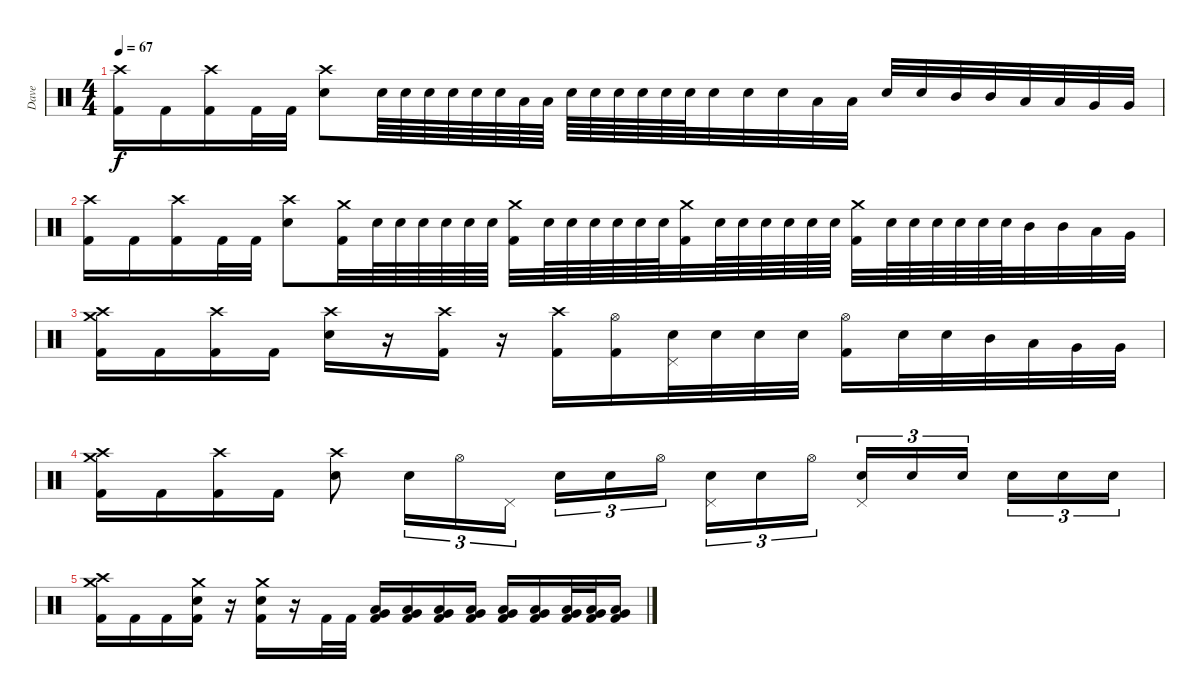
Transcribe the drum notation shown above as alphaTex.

\track ("Dave" "Dave") {instrument percussion}
\staff {score}
\articulation defaults
\ts (4 4)
\tempo 67
\clef neutral
\ks c
("Kick (hit) 2" "Crash high (hit)").16{dy f} "Kick (hit) 2".16 ("Kick (hit) 2" "Crash high (hit)").16 "Kick (hit) 2".32 "Kick (hit) 2".32 ("Electric Snare (hit)" "Crash high (hit)").8 "Electric Snare (hit)".64 "Electric Snare (hit)".64 "Electric Snare (hit)".64 "Electric Snare (hit)".64 "Electric Snare (hit)".64 "Electric Snare (hit)".64 "Low Tom (hit)".64 "Low Tom (hit)".64 "Electric Snare (hit)".64 "Electric Snare (hit)".64 "Electric Snare (hit)".64 "Electric Snare (hit)".64 "Electric Snare (hit)".64 "Electric Snare (hit)".64 "Electric Snare (hit)".32 "Electric Snare (hit)".32 "Electric Snare (hit)".32 "Low Tom (hit)".32 "Low Tom (hit)".32 "Electric Snare (hit)".32 "Electric Snare (hit)".32 "Mid Tom (hit)".32 "Mid Tom (hit)".32 "Low Tom (hit)".32 "Low Tom (hit)".32 "Very Low Tom (hit)".32 "Very Low Tom (hit)".32 |
("Kick (hit) 2" "Crash high (hit)").16 "Kick (hit) 2".16 ("Kick (hit) 2" "Crash high (hit)").16 "Kick (hit) 2".32 "Kick (hit) 2".32 ("Electric Snare (hit)" "Crash high (hit)").8 ("Kick (hit) 2" "Crash medium (hit)").32 "Electric Snare (hit)".64 "Electric Snare (hit)".64 "Electric Snare (hit)".64 "Electric Snare (hit)".64 "Electric Snare (hit)".64 "Electric Snare (hit)".64 ("Kick (hit) 2" "Crash medium (hit)").32 "Electric Snare (hit)".64 "Electric Snare (hit)".64 "Electric Snare (hit)".64 "Electric Snare (hit)".64 "Electric Snare (hit)".64 "Electric Snare (hit)".64 ("Kick (hit) 2" "Crash medium (hit)").32 "Electric Snare (hit)".64 "Electric Snare (hit)".64 "Electric Snare (hit)".64 "Electric Snare (hit)".64 "Electric Snare (hit)".64 "Electric Snare (hit)".64 ("Kick (hit) 2" "Crash medium (hit)").32 "Electric Snare (hit)".64 "Electric Snare (hit)".64 "Electric Snare (hit)".64 "Electric Snare (hit)".64 "Electric Snare (hit)".64 "Electric Snare (hit)".64 "Mid Tom (hit)".32 "Mid Tom (hit)".32 "Low Tom (hit)".32 "Very Low Tom (hit)".32 |
("Kick (hit) 2" "Crash medium (hit)" "Crash high (hit)").16 "Kick (hit) 2".16 ("Kick (hit) 2" "Crash high (hit)").16 "Kick (hit) 2".16 ("Electric Snare (hit)" "Crash high (hit)").16 r.16 ("Kick (hit) 2" "Crash high (hit)").16 r.16 ("Kick (hit) 2" "Crash high (hit)").16 ("Kick (hit) 2" "Hi-Hat (open)").16 ("Electric Snare (hit)" "Pedal Hi-Hat (hit)").32 "Electric Snare (hit)".32 "Electric Snare (hit)".32 "Electric Snare (hit)".32 ("Kick (hit) 2" "Hi-Hat (open)").16 "Electric Snare (hit)".32 "Electric Snare (hit)".32 "Mid Tom (hit)".32 "Low Tom (hit)".32 "Very Low Tom (hit)".32 "Very Low Tom (hit)".32 |
("Kick (hit) 2" "Crash medium (hit)" "Crash high (hit)").16 "Kick (hit) 2".16 ("Kick (hit) 2" "Crash high (hit)").16 "Kick (hit) 2".16 ("Electric Snare (hit)" "Crash high (hit)").8 "Electric Snare (hit)".16{tu (3 2)} "Hi-Hat (open)".16{tu (3 2)} "Pedal Hi-Hat (hit)".16{tu (3 2)} "Electric Snare (hit)".16{tu (3 2)} "Electric Snare (hit)".16{tu (3 2)} "Hi-Hat (open)".16{tu (3 2) beam splitsecondary} ("Pedal Hi-Hat (hit)" "Electric Snare (hit)").16{tu (3 2)} "Electric Snare (hit)".16{tu (3 2)} "Hi-Hat (open)".16{tu (3 2)} ("Pedal Hi-Hat (hit)" "Electric Snare (hit)").16{tu (3 2)} "Electric Snare (hit)".16{tu (3 2)} "Electric Snare (hit)".16{tu (3 2) beam splitsecondary} "Electric Snare (hit)".16{tu (3 2)} "Electric Snare (hit)".16{tu (3 2)} "Electric Snare (hit)".16{tu (3 2)} |
("Kick (hit) 2" "Crash medium (hit)" "Crash high (hit)").16 "Kick (hit) 2".16 "Kick (hit) 2".16 ("Kick (hit) 2" "Electric Snare (hit)" "Crash medium (hit)").16 r.16 ("Kick (hit) 2" "Electric Snare (hit)" "Crash medium (hit)").16 r.16 "Kick (hit) 2".32 "Kick (hit) 2".32 ("Kick (hit) 2" "Very Low Tom (hit)" "Low Floor Tom (hit)").16 ("Kick (hit) 2" "Low Floor Tom (hit)" "Very Low Tom (hit)").16 ("Kick (hit) 2" "Low Floor Tom (hit)" "Very Low Tom (hit)").16 ("Kick (hit) 2" "Low Floor Tom (hit)" "Very Low Tom (hit)").16 ("Kick (hit) 2" "Low Floor Tom (hit)" "Very Low Tom (hit)").16 ("Kick (hit) 2" "Low Floor Tom (hit)" "Very Low Tom (hit)").16 ("Kick (hit) 2" "Low Floor Tom (hit)" "Very Low Tom (hit)").32 ("Kick (hit) 2" "Very Low Tom (hit)" "Low Floor Tom (hit)").32 ("Kick (hit) 2" "Low Floor Tom (hit)" "Very Low Tom (hit)").16
